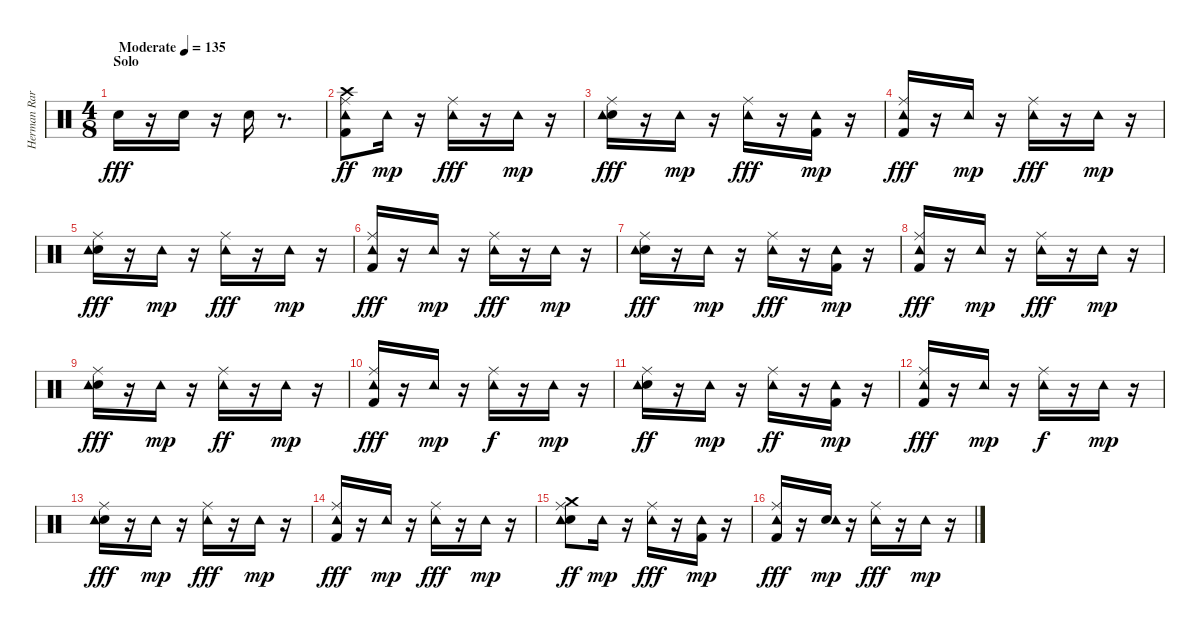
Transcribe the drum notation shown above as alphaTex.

\track ("Herman Rarebell" "Herman Rar") {instrument percussion}
\staff {score}
\articulation defaults
\ts (4 8)
\section ("" "Solo")
\tempo (135 "Moderate")
\clef neutral
\ks c "Snare (hit) 2".16{dy fff}
r.16 "Snare (hit) 2".16 r.16 "Snare (hit) 2".16 r.8{d} |
("Kick (hit) 2" "Ride (middle)" "Tambourine (hit)" "Crash high (hit)").8{dy ff} "Tambourine (hit)".16{dy mp} r.16 ("Ride (middle)" "Tambourine (hit)").16{dy fff} r.16 "Tambourine (hit)".16{dy mp} r.16 |
("Snare (hit) 2" "Ride (middle)" "Tambourine (hit)").16{dy fff} r.16 "Tambourine (hit)".16{dy mp} r.16 ("Ride (middle)" "Tambourine (hit)").16{dy fff} r.16 ("Kick (hit) 2" "Tambourine (hit)").16{dy mp} r.16 |
("Kick (hit) 2" "Ride (middle)" "Tambourine (hit)").16{dy fff} r.16 "Tambourine (hit)".16{dy mp} r.16 ("Ride (middle)" "Tambourine (hit)").16{dy fff} r.16 "Tambourine (hit)".16{dy mp} r.16 |
("Snare (hit) 2" "Ride (middle)" "Tambourine (hit)").16{dy fff} r.16 "Tambourine (hit)".16{dy mp} r.16 ("Ride (middle)" "Tambourine (hit)").16{dy fff} r.16 "Tambourine (hit)".16{dy mp} r.16 |
("Kick (hit) 2" "Ride (middle)" "Tambourine (hit)").16{dy fff} r.16 "Tambourine (hit)".16{dy mp} r.16 ("Ride (middle)" "Tambourine (hit)").16{dy fff} r.16 "Tambourine (hit)".16{dy mp} r.16 |
("Snare (hit) 2" "Ride (middle)" "Tambourine (hit)").16{dy fff} r.16 "Tambourine (hit)".16{dy mp} r.16 ("Ride (middle)" "Tambourine (hit)").16{dy fff} r.16 ("Kick (hit) 2" "Tambourine (hit)").16{dy mp} r.16 |
("Kick (hit) 2" "Ride (middle)" "Tambourine (hit)").16{dy fff} r.16 "Tambourine (hit)".16{dy mp} r.16 ("Ride (middle)" "Tambourine (hit)").16{dy fff} r.16 "Tambourine (hit)".16{dy mp} r.16 |
("Snare (hit) 2" "Ride (middle)" "Tambourine (hit)").16{dy fff} r.16 "Tambourine (hit)".16{dy mp} r.16 ("Ride (middle)" "Tambourine (hit)").16{dy ff} r.16 "Tambourine (hit)".16{dy mp} r.16 |
("Kick (hit) 2" "Ride (middle)" "Tambourine (hit)").16{dy fff} r.16 "Tambourine (hit)".16{dy mp} r.16 ("Ride (middle)" "Tambourine (hit)").16{dy f} r.16 "Tambourine (hit)".16{dy mp} r.16 |
("Snare (hit) 2" "Ride (middle)" "Tambourine (hit)").16{dy ff} r.16 "Tambourine (hit)".16{dy mp} r.16 ("Ride (middle)" "Tambourine (hit)").16{dy ff} r.16 ("Kick (hit) 2" "Tambourine (hit)").16{dy mp} r.16 |
("Kick (hit) 2" "Ride (middle)" "Tambourine (hit)").16{dy fff} r.16 "Tambourine (hit)".16{dy mp} r.16 ("Ride (middle)" "Tambourine (hit)").16{dy f} r.16 "Tambourine (hit)".16{dy mp} r.16 |
("Snare (hit) 2" "Ride (middle)" "Tambourine (hit)").16{dy fff} r.16 "Tambourine (hit)".16{dy mp} r.16 ("Ride (middle)" "Tambourine (hit)").16{dy fff} r.16 "Tambourine (hit)".16{dy mp} r.16 |
("Kick (hit) 2" "Ride (middle)" "Tambourine (hit)").16{dy fff} r.16 "Tambourine (hit)".16{dy mp} r.16 ("Ride (middle)" "Tambourine (hit)").16{dy fff} r.16 "Tambourine (hit)".16{dy mp} r.16 |
("Snare (hit) 2" "Ride (middle)" "Tambourine (hit)" "Crash medium (hit)").8{dy ff} "Tambourine (hit)".16{dy mp} r.16 ("Ride (middle)" "Tambourine (hit)").16{dy fff} r.16 ("Kick (hit) 2" "Tambourine (hit)").16{dy mp} r.16 |
("Kick (hit) 2" "Ride (middle)" "Tambourine (hit)").16{dy fff} r.16 ("Snare (hit) 2" "Tambourine (hit)").16{dy mp} r.16 ("Ride (middle)" "Tambourine (hit)").16{dy fff} r.16 "Tambourine (hit)".16{dy mp} r.16
